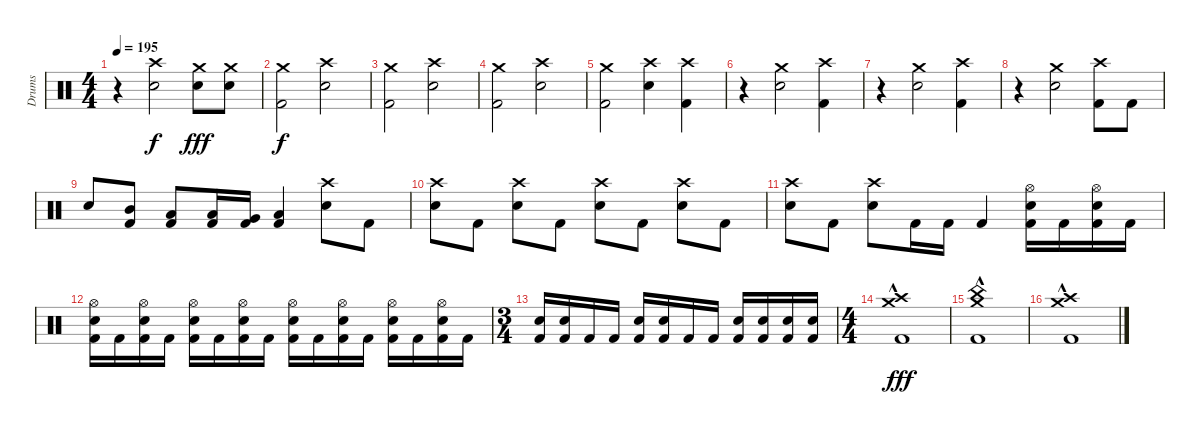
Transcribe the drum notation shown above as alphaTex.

\track ("Drums" "Drums") {instrument percussion}
\staff {score}
\articulation defaults
\ts (4 4)
\tempo 195
\clef neutral
\ks c
r.4{dy f} ("Crash high (hit)" "Electric Snare (hit)").2 ("Crash medium (hit)" "Electric Snare (hit)").8{dy fff} ("Crash medium (hit)" "Electric Snare (hit)").8 |
("Crash medium (hit)" "Kick (hit) 2").2{dy f} ("Crash high (hit)" "Electric Snare (hit)").2 |
("Crash medium (hit)" "Kick (hit) 2").2 ("Crash high (hit)" "Electric Snare (hit)").2 |
("Crash medium (hit)" "Kick (hit) 2").2 ("Crash high (hit)" "Electric Snare (hit)").2 |
("Crash medium (hit)" "Kick (hit) 2").2 ("Crash high (hit)" "Electric Snare (hit)").4 ("Crash high (hit)" "Kick (hit) 2").4 |
r.4 ("Crash medium (hit)" "Electric Snare (hit)").2 ("Crash high (hit)" "Kick (hit) 2").4 |
r.4 ("Crash medium (hit)" "Electric Snare (hit)").2 ("Crash high (hit)" "Kick (hit) 2").4 |
r.4 ("Crash medium (hit)" "Electric Snare (hit)").2 ("Crash high (hit)" "Kick (hit) 2").8 "Kick (hit) 2".8 |
"Electric Snare (hit)".8 ("Mid Tom (hit)" "Kick (hit) 2").8 ("Low Tom (hit)" "Kick (hit) 2").8 ("Low Tom (hit)" "Kick (hit) 2").16 ("Very Low Tom (hit)" "Kick (hit) 2").16 ("Low Floor Tom (hit)" "Kick (hit) 2").4 ("Crash high (hit)" "Electric Snare (hit)").8 "Kick (hit) 2".8 |
("Crash high (hit)" "Electric Snare (hit)").8 "Kick (hit) 2".8 ("Crash high (hit)" "Electric Snare (hit)").8 "Kick (hit) 2".8 ("Crash high (hit)" "Electric Snare (hit)").8 "Kick (hit) 2".8 ("Crash high (hit)" "Electric Snare (hit)").8 "Kick (hit) 2".8 |
("Crash high (hit)" "Electric Snare (hit)").8 "Kick (hit) 2".8 ("Crash high (hit)" "Electric Snare (hit)").8 "Kick (hit) 2".16 "Kick (hit) 2".16 "Kick (hit) 2".4 ("Hi-Hat (open)" "Kick (hit) 2" "Electric Snare (hit)").16 "Kick (hit) 2".16 ("Hi-Hat (open)" "Kick (hit) 2" "Electric Snare (hit)").16 "Kick (hit) 2".16 |
("Hi-Hat (open)" "Kick (hit) 2" "Electric Snare (hit)").16 "Kick (hit) 2".16 ("Hi-Hat (open)" "Kick (hit) 2" "Electric Snare (hit)").16 "Kick (hit) 2".16 ("Hi-Hat (open)" "Kick (hit) 2" "Electric Snare (hit)").16 "Kick (hit) 2".16 ("Hi-Hat (open)" "Kick (hit) 2" "Electric Snare (hit)").16 "Kick (hit) 2".16 ("Hi-Hat (open)" "Kick (hit) 2" "Electric Snare (hit)").16 "Kick (hit) 2".16 ("Hi-Hat (open)" "Kick (hit) 2" "Electric Snare (hit)").16 "Kick (hit) 2".16 ("Hi-Hat (open)" "Kick (hit) 2" "Electric Snare (hit)").16 "Kick (hit) 2".16 ("Hi-Hat (open)" "Kick (hit) 2" "Electric Snare (hit)").16 "Kick (hit) 2".16 |
\ts (3 4)
("Electric Snare (hit)" "Kick (hit) 2").16 ("Electric Snare (hit)" "Kick (hit) 2").16 "Kick (hit) 2".16 "Kick (hit) 2".16 ("Electric Snare (hit)" "Kick (hit) 2").16 ("Electric Snare (hit)" "Kick (hit) 2").16 "Kick (hit) 2".16 "Kick (hit) 2".16 ("Electric Snare (hit)" "Kick (hit) 2").16 ("Electric Snare (hit)" "Kick (hit) 2").16 ("Electric Snare (hit)" "Kick (hit) 2").16 ("Electric Snare (hit)" "Kick (hit) 2").16 |
\ts (4 4)
("Crash high (hit)" "Kick (hit) 2"{hac} "Crash medium (hit)").1{dy fff} |
("Crash medium (hit)" "China (hit)" "Kick (hit) 2"{hac}).1 |
("Crash high (hit)" "Crash medium (hit)" "Kick (hit) 2"{hac}).1
